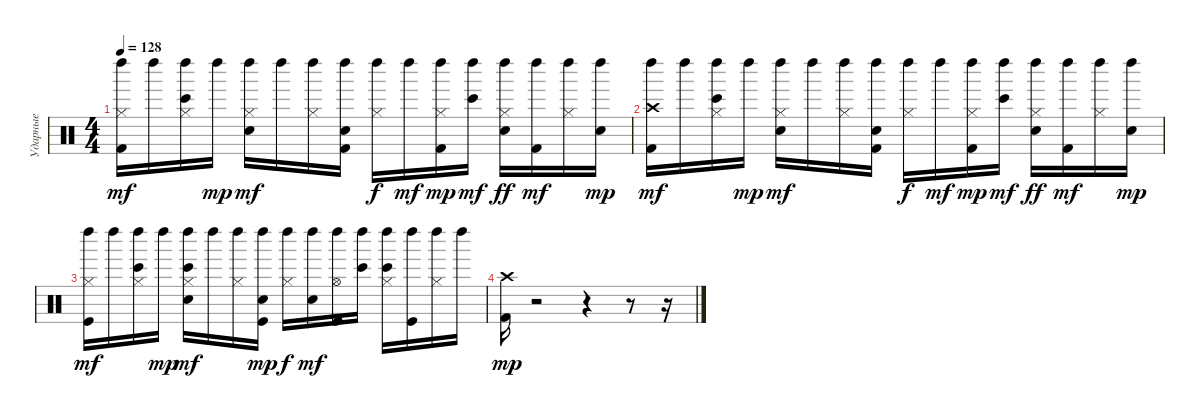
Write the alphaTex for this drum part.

\track ("Ударные" "Ударные") {instrument percussion}
\staff {score}
\articulation defaults
\ts (4 4)
\tempo 128
\clef neutral
\ks c
("Kick (hit) 2" "Hi-Hat (closed)" "Left Maraca (hit)").16{dy mf} "Left Maraca (hit)".16 ("Bongo High (hit)" "Hi-Hat (closed)" "Left Maraca (hit)").16 "Left Maraca (hit)".16{dy mp} ("Electric Snare (hit)" "Hi-Hat (closed)" "Left Maraca (hit)").16{dy mf} "Left Maraca (hit)".16 ("Hi-Hat (closed)" "Left Maraca (hit)").16 ("Kick (hit) 2" "Electric Snare (hit)" "Left Maraca (hit)").16 ("Hi-Hat (closed)" "Left Maraca (hit)").16{dy f} "Left Maraca (hit)".16{dy mf} ("Kick (hit) 2" "Hi-Hat (closed)" "Left Maraca (hit)").16{dy mp} ("Bongo High (hit)" "Left Maraca (hit)").16{dy mf} ("Electric Snare (hit)" "Hi-Hat (closed)" "Left Maraca (hit)").16{dy ff} ("Kick (hit) 2" "Left Maraca (hit)").16{dy mf} ("Hi-Hat (closed)" "Left Maraca (hit)").16 ("Electric Snare (hit)" "Left Maraca (hit)").16{dy mp} |
("Kick (hit) 2" "Crash high (hit)" "Left Maraca (hit)").16{dy mf} "Left Maraca (hit)".16 ("Bongo High (hit)" "Hi-Hat (closed)" "Left Maraca (hit)").16 "Left Maraca (hit)".16{dy mp} ("Electric Snare (hit)" "Hi-Hat (closed)" "Left Maraca (hit)").16{dy mf} "Left Maraca (hit)".16 ("Hi-Hat (closed)" "Left Maraca (hit)").16 ("Kick (hit) 2" "Electric Snare (hit)" "Left Maraca (hit)").16 ("Hi-Hat (closed)" "Left Maraca (hit)").16{dy f} "Left Maraca (hit)".16{dy mf} ("Kick (hit) 2" "Hi-Hat (closed)" "Left Maraca (hit)").16{dy mp} ("Bongo High (hit)" "Left Maraca (hit)").16{dy mf} ("Electric Snare (hit)" "Hi-Hat (closed)" "Left Maraca (hit)").16{dy ff} ("Kick (hit) 2" "Left Maraca (hit)").16{dy mf} ("Hi-Hat (closed)" "Left Maraca (hit)").16 ("Electric Snare (hit)" "Left Maraca (hit)").16{dy mp} |
("Kick (hit)" "Hi-Hat (closed)" "Left Maraca (hit)").16{dy mf} "Left Maraca (hit)".16 ("Bongo High (hit)" "Hi-Hat (closed)" "Left Maraca (hit)").16 "Left Maraca (hit)".16{dy mp} ("Bongo High (hit)" "Electric Snare (hit)" "Hi-Hat (closed)" "Left Maraca (hit)").16{dy mf} "Left Maraca (hit)".16 ("Hi-Hat (closed)" "Left Maraca (hit)").16 ("Kick (hit)" "Electric Snare (hit)" "Left Maraca (hit)").16{dy mp} ("Hi-Hat (closed)" "Left Maraca (hit)").16{dy f} ("Electric Snare (hit)" "Left Maraca (hit)").16{dy mf} ("Kick (hit)" "Hi-Hat (open)" "Left Maraca (hit)").16 ("Bongo High (hit)" "Left Maraca (hit)").16 ("Bongo High (hit)" "Hi-Hat (closed)" "Left Maraca (hit)").16 ("Kick (hit)" "Left Maraca (hit)").16 ("Hi-Hat (closed)" "Left Maraca (hit)").16 "Left Maraca (hit)".16 |
("Kick (hit) 2" "Crash high (hit)").16{dy mp} r.2 r.4 r.8 r.16
